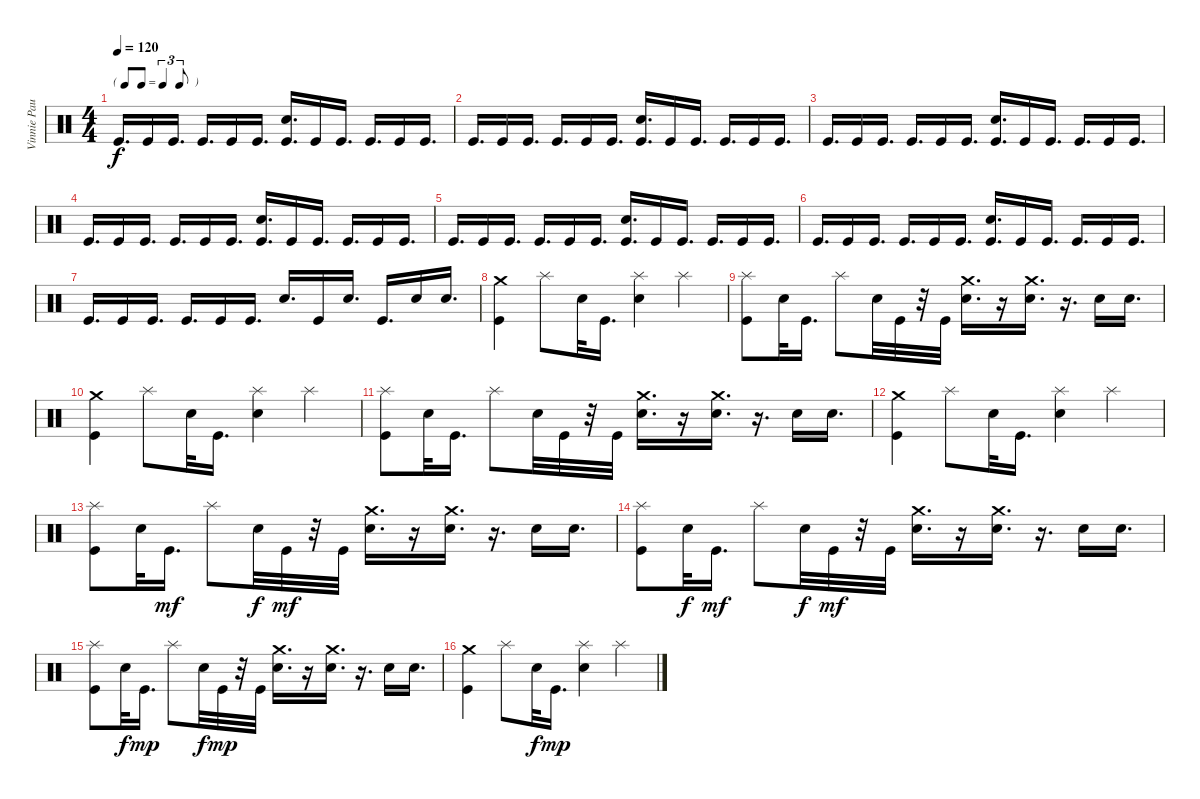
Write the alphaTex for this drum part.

\track ("Vinnie Paul" "Vinnie Pau") {instrument percussion}
\staff {score}
\articulation defaults
\ts (4 4)
\tf triplet8th
\tempo 120
\clef neutral
\ks c "Kick (hit)".16{d dy f} "Kick (hit)".16 "Kick (hit)".16{d} "Kick (hit)".16{d} "Kick (hit)".16 "Kick (hit)".16{d}
("Snare (hit) 2" "Kick (hit)").16{d} "Kick (hit)".16 "Kick (hit)".16{d} "Kick (hit)".16{d} "Kick (hit)".16 "Kick (hit)".16{d} |
"Kick (hit)".16{d} "Kick (hit)".16 "Kick (hit)".16{d} "Kick (hit)".16{d} "Kick (hit)".16 "Kick (hit)".16{d} ("Snare (hit) 2" "Kick (hit)").16{d} "Kick (hit)".16 "Kick (hit)".16{d} "Kick (hit)".16{d} "Kick (hit)".16 "Kick (hit)".16{d} |
"Kick (hit)".16{d} "Kick (hit)".16 "Kick (hit)".16{d} "Kick (hit)".16{d} "Kick (hit)".16 "Kick (hit)".16{d} ("Snare (hit) 2" "Kick (hit)").16{d} "Kick (hit)".16 "Kick (hit)".16{d} "Kick (hit)".16{d} "Kick (hit)".16 "Kick (hit)".16{d} |
"Kick (hit)".16{d} "Kick (hit)".16 "Kick (hit)".16{d} "Kick (hit)".16{d} "Kick (hit)".16 "Kick (hit)".16{d} ("Snare (hit) 2" "Kick (hit)").16{d} "Kick (hit)".16 "Kick (hit)".16{d} "Kick (hit)".16{d} "Kick (hit)".16 "Kick (hit)".16{d} |
"Kick (hit)".16{d} "Kick (hit)".16 "Kick (hit)".16{d} "Kick (hit)".16{d} "Kick (hit)".16 "Kick (hit)".16{d} ("Snare (hit) 2" "Kick (hit)").16{d} "Kick (hit)".16 "Kick (hit)".16{d} "Kick (hit)".16{d} "Kick (hit)".16 "Kick (hit)".16{d} |
"Kick (hit)".16{d} "Kick (hit)".16 "Kick (hit)".16{d} "Kick (hit)".16{d} "Kick (hit)".16 "Kick (hit)".16{d} ("Snare (hit) 2" "Kick (hit)").16{d} "Kick (hit)".16 "Kick (hit)".16{d} "Kick (hit)".16{d} "Kick (hit)".16 "Kick (hit)".16{d} |
"Kick (hit)".16{d} "Kick (hit)".16 "Kick (hit)".16{d} "Kick (hit)".16{d} "Kick (hit)".16 "Kick (hit)".16{d} "Snare (hit) 2".16{d} "Kick (hit)".16 "Snare (hit) 2".16{d} "Kick (hit)".16{d} "Snare (hit) 2".16 "Snare (hit) 2".16{d} |
("Kick (hit)" "Crash medium (hit)").4 "Splash (hit)".8 "Snare (hit)".32 "Kick (hit)".16{d} ("Snare (hit) 2" "Splash (hit)").4 "Splash (hit)".4 |
("Kick (hit)" "Splash (hit)").8 "Snare (hit)".32 "Kick (hit)".16{d} "Splash (hit)".8 "Snare (hit)".32 "Kick (hit)".32 r.32 "Kick (hit)".32 ("Snare (hit) 2" "Crash medium (hit)").16{d} r.16 ("Crash medium (hit)" "Snare (hit) 2").16{d} r.16{d} "Snare (hit) 2".16 "Snare (hit) 2".16{d} |
("Kick (hit)" "Crash medium (hit)").4 "Splash (hit)".8 "Snare (hit)".32 "Kick (hit)".16{d} ("Snare (hit) 2" "Splash (hit)").4 "Splash (hit)".4 |
("Kick (hit)" "Splash (hit)").8 "Snare (hit)".32 "Kick (hit)".16{d} "Splash (hit)".8 "Snare (hit)".32 "Kick (hit)".32 r.32 "Kick (hit)".32 ("Snare (hit) 2" "Crash medium (hit)").16{d} r.16 ("Crash medium (hit)" "Snare (hit) 2").16{d} r.16{d} "Snare (hit) 2".16 "Snare (hit) 2".16{d} |
("Kick (hit)" "Crash medium (hit)").4 "Splash (hit)".8 "Snare (hit)".32 "Kick (hit)".16{d} ("Snare (hit) 2" "Splash (hit)").4 "Splash (hit)".4 |
("Kick (hit)" "Splash (hit)").8 "Snare (hit)".32 "Kick (hit)".16{d dy mf} "Splash (hit)".8 "Snare (hit)".32{dy f} "Kick (hit)".32{dy mf} r.32 "Kick (hit)".32 ("Snare (hit) 2" "Crash medium (hit)").16{d} r.16 ("Crash medium (hit)" "Snare (hit) 2").16{d} r.16{d} "Snare (hit) 2".16 "Snare (hit) 2".16{d} |
("Kick (hit)" "Splash (hit)").8 "Snare (hit)".32{dy f} "Kick (hit)".16{d dy mf} "Splash (hit)".8 "Snare (hit)".32{dy f} "Kick (hit)".32{dy mf} r.32 "Kick (hit)".32 ("Snare (hit) 2" "Crash medium (hit)").16{d} r.16 ("Crash medium (hit)" "Snare (hit) 2").16{d} r.16{d} "Snare (hit) 2".16 "Snare (hit) 2".16{d} |
("Kick (hit)" "Splash (hit)").8 "Snare (hit)".32{dy f} "Kick (hit)".16{d dy mp} "Splash (hit)".8 "Snare (hit)".32{dy f} "Kick (hit)".32{dy mp} r.32 "Kick (hit)".32 ("Snare (hit) 2" "Crash medium (hit)").16{d} r.16 ("Crash medium (hit)" "Snare (hit) 2").16{d} r.16{d} "Snare (hit) 2".16 "Snare (hit) 2".16{d} |
("Kick (hit)" "Crash medium (hit)").4 "Splash (hit)".8 "Snare (hit)".32{dy f} "Kick (hit)".16{d dy mp} ("Snare (hit) 2" "Splash (hit)").4 "Splash (hit)".4
